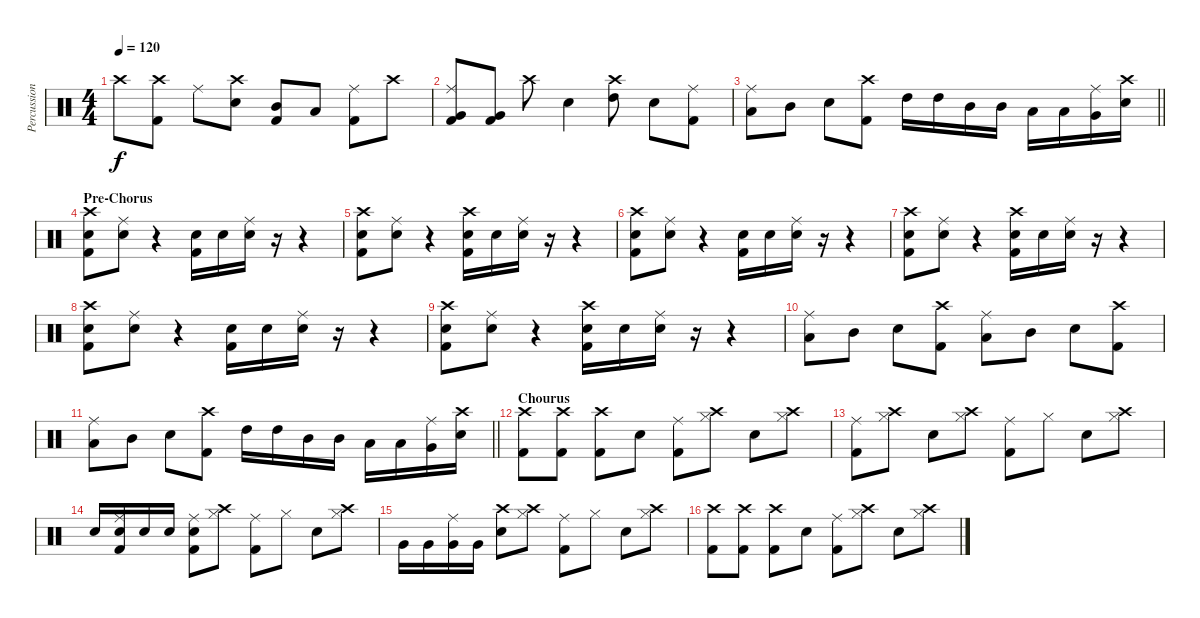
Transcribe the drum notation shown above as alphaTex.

\track ("Percussion" "Percussion") {instrument percussion}
\staff {score}
\articulation defaults
\ts (4 4)
\tempo 120
\clef neutral
\ks c "Crash high (hit)".8{dy f}
("Crash high (hit)" "Kick (hit) 2").8 "Ride (middle)".8 ("Crash high (hit)" "Electric Snare (hit)").8 ("Mid Tom (hit)" "Kick (hit) 2").8 "Low Tom (hit)".8 ("Ride (middle)" "Kick (hit) 2").8 "Crash high (hit)".8 |
("Ride (middle)" "Very Low Tom (hit)" "Kick (hit) 2").8 ("Very Low Tom (hit)" "Kick (hit) 2").8 "Crash high (hit)".8 "Electric Snare (hit)".4 ("Crash high (hit)" "High Tom (hit)").8 "Electric Snare (hit)".8 ("Ride (middle)" "Kick (hit) 2").8 |
\barLineRight lightlight
("Ride (middle)" "Low Tom (hit)").8 "Mid Tom (hit)".8 "Electric Snare (hit)".8 ("Crash high (hit)" "Kick (hit) 2").8 "High Tom (hit)".16 "High Tom (hit)".16 "Mid Tom (hit)".16 "Mid Tom (hit)".16 "Low Tom (hit)".16 "Low Tom (hit)".16 ("Ride (middle)" "Very Low Tom (hit)").16 ("Crash high (hit)" "Electric Snare (hit)").16 |
\section ("" "Pre-Chorus")
("Crash high (hit)" "Electric Snare (hit)" "Kick (hit) 2").8 ("Ride (middle)" "Electric Snare (hit)").8 r.4 ("Electric Snare (hit)" "Kick (hit) 2").16 "Electric Snare (hit)".16 ("Ride (middle)" "Electric Snare (hit)").16 r.16 r.4 |
("Crash high (hit)" "Electric Snare (hit)" "Kick (hit) 2").8 ("Ride (middle)" "Electric Snare (hit)").8 r.4 ("Crash high (hit)" "Electric Snare (hit)" "Kick (hit) 2").16 "Electric Snare (hit)".16 ("Ride (middle)" "Electric Snare (hit)").16 r.16 r.4 |
("Crash high (hit)" "Electric Snare (hit)" "Kick (hit) 2").8 ("Ride (middle)" "Electric Snare (hit)").8 r.4 ("Electric Snare (hit)" "Kick (hit) 2").16 "Electric Snare (hit)".16 ("Ride (middle)" "Electric Snare (hit)").16 r.16 r.4 |
("Crash high (hit)" "Electric Snare (hit)" "Kick (hit) 2").8 ("Ride (middle)" "Electric Snare (hit)").8 r.4 ("Crash high (hit)" "Electric Snare (hit)" "Kick (hit) 2").16 "Electric Snare (hit)".16 ("Ride (middle)" "Electric Snare (hit)").16 r.16 r.4 |
("Crash high (hit)" "Electric Snare (hit)" "Kick (hit) 2").8 ("Ride (middle)" "Electric Snare (hit)").8 r.4 ("Electric Snare (hit)" "Kick (hit) 2").16 "Electric Snare (hit)".16 ("Ride (middle)" "Electric Snare (hit)").16 r.16 r.4 |
("Crash high (hit)" "Electric Snare (hit)" "Kick (hit) 2").8 ("Ride (middle)" "Electric Snare (hit)").8 r.4 ("Crash high (hit)" "Electric Snare (hit)" "Kick (hit) 2").16 "Electric Snare (hit)".16 ("Ride (middle)" "Electric Snare (hit)").16 r.16 r.4 |
("Ride (middle)" "Low Tom (hit)").8 "Mid Tom (hit)".8 "Electric Snare (hit)".8 ("Crash high (hit)" "Kick (hit) 2").8 ("Ride (middle)" "Low Tom (hit)").8 "Mid Tom (hit)".8 "Electric Snare (hit)".8 ("Crash high (hit)" "Kick (hit) 2").8 |
\barLineRight lightlight
("Ride (middle)" "Low Tom (hit)").8 "Mid Tom (hit)".8 "Electric Snare (hit)".8 ("Crash high (hit)" "Kick (hit) 2").8 "High Tom (hit)".16 "High Tom (hit)".16 "Mid Tom (hit)".16 "Mid Tom (hit)".16 "Low Tom (hit)".16 "Low Tom (hit)".16 ("Ride (middle)" "Very Low Tom (hit)").16 ("Crash high (hit)" "Electric Snare (hit)").16 |
\section ("" "Chourus")
("Crash high (hit)" "Kick (hit) 2").8 ("Crash high (hit)" "Kick (hit) 2").8 ("Crash high (hit)" "Kick (hit) 2").8 "Electric Snare (hit)".8 ("Ride (middle)" "Kick (hit) 2").8 ("Crash high (hit)" "Hi-Hat (closed)").8 "Electric Snare (hit)".8 ("Crash high (hit)" "Hi-Hat (closed)").8 |
("Ride (middle)" "Kick (hit) 2").8 ("Crash high (hit)" "Hi-Hat (closed)").8 "Electric Snare (hit)".8 ("Crash high (hit)" "Hi-Hat (closed)").8 ("Ride (middle)" "Kick (hit) 2").8 "Hi-Hat (closed)".8 "Electric Snare (hit)".8 ("Crash high (hit)" "Hi-Hat (closed)").8 |
"Electric Snare (hit)".16 ("Ride (middle)" "Electric Snare (hit)" "Kick (hit) 2").16 "Electric Snare (hit)".16 "Electric Snare (hit)".16 ("Ride (middle)" "Electric Snare (hit)" "Kick (hit) 2").8 ("Crash high (hit)" "Hi-Hat (closed)").8 ("Ride (middle)" "Kick (hit) 2").8 "Hi-Hat (closed)".8 "Electric Snare (hit)".8 ("Crash high (hit)" "Hi-Hat (closed)").8 |
"Very Low Tom (hit)".16 "Very Low Tom (hit)".16 ("Ride (middle)" "Very Low Tom (hit)").16 "Very Low Tom (hit)".16 ("Crash high (hit)" "Electric Snare (hit)").8 ("Crash high (hit)" "Hi-Hat (closed)").8 ("Ride (middle)" "Kick (hit) 2").8 "Hi-Hat (closed)".8 "Electric Snare (hit)".8 ("Crash high (hit)" "Hi-Hat (closed)").8 |
("Crash high (hit)" "Kick (hit) 2").8 ("Crash high (hit)" "Kick (hit) 2").8 ("Crash high (hit)" "Kick (hit) 2").8 "Electric Snare (hit)".8 ("Ride (middle)" "Kick (hit) 2").8 ("Crash high (hit)" "Hi-Hat (closed)").8 "Electric Snare (hit)".8 ("Crash high (hit)" "Hi-Hat (closed)").8
